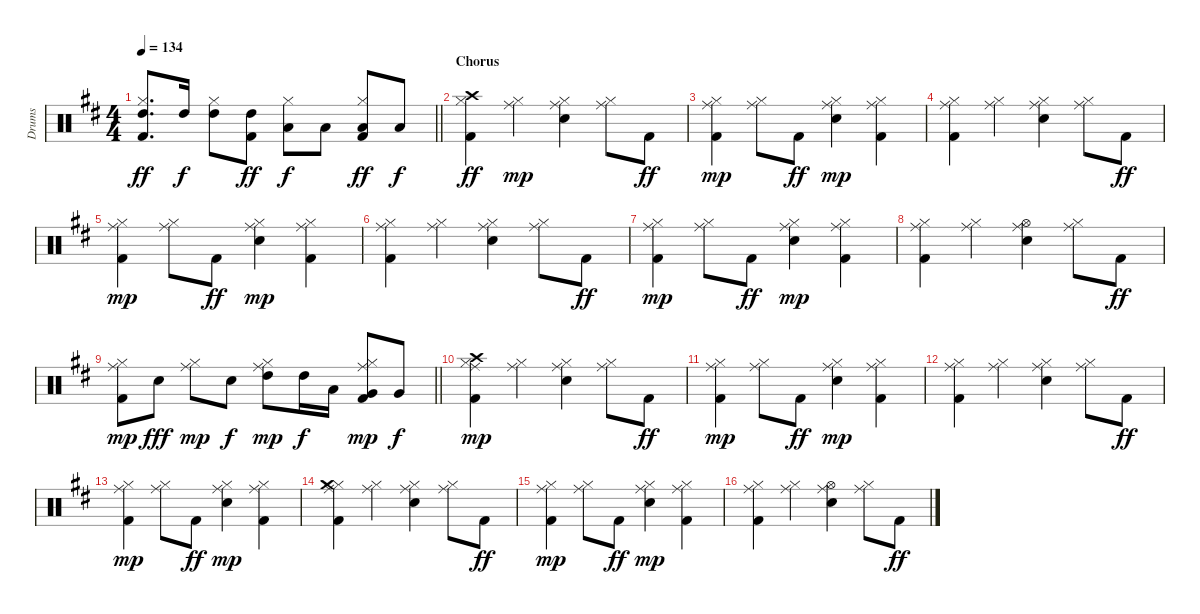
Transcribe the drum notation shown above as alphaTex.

\track ("Drums" "Drums") {instrument percussion}
\staff {score}
\articulation defaults
\ts (4 4)
\tempo 134
\clef neutral
\barLineRight lightlight
\ks d
("Kick (hit) 2" "Hi-Hat (closed)" "High Tom (hit)").8{d dy ff} "High Tom (hit)".16{dy f} ("Hi-Hat (closed)" "High Tom (hit)").8 ("Kick (hit) 2" "High Tom (hit)").8{dy ff} ("Hi-Hat (closed)" "Low Tom (hit)").8{dy f} "Low Tom (hit)".8 ("Kick (hit) 2" "Low Floor Tom (hit)" "Hi-Hat (closed)").8{dy ff} "Low Floor Tom (hit)".8{dy f} |
\section ("" "Chorus")
("Kick (hit) 2" "Hi-Hat (closed)" "Crash high (hit)").4{dy ff} ("Hi-Hat (closed)" "Ride (middle)").4{dy mp} ("Snare (hit) 2" "Hi-Hat (closed)" "Ride (middle)").4 ("Hi-Hat (closed)" "Ride (middle)").8 "Kick (hit) 2".8{dy ff} |
("Kick (hit) 2" "Hi-Hat (closed)" "Ride (middle)").4{dy mp} ("Hi-Hat (closed)" "Ride (middle)").8 "Kick (hit) 2".8{dy ff} ("Snare (hit) 2" "Hi-Hat (closed)" "Ride (middle)").4{dy mp} ("Kick (hit) 2" "Hi-Hat (closed)" "Ride (middle)").4 |
("Kick (hit) 2" "Hi-Hat (closed)" "Ride (middle)").4 ("Hi-Hat (closed)" "Ride (middle)").4 ("Snare (hit) 2" "Hi-Hat (closed)" "Ride (middle)").4 ("Hi-Hat (closed)" "Ride (middle)").8 "Kick (hit) 2".8{dy ff} |
("Kick (hit) 2" "Hi-Hat (closed)" "Ride (middle)").4{dy mp} ("Hi-Hat (closed)" "Ride (middle)").8 "Kick (hit) 2".8{dy ff} ("Snare (hit) 2" "Hi-Hat (closed)" "Ride (middle)").4{dy mp} ("Kick (hit) 2" "Hi-Hat (closed)" "Ride (middle)").4 |
("Kick (hit) 2" "Hi-Hat (closed)" "Ride (middle)").4 ("Hi-Hat (closed)" "Ride (middle)").4 ("Snare (hit) 2" "Hi-Hat (closed)" "Ride (middle)").4 ("Hi-Hat (closed)" "Ride (middle)").8 "Kick (hit) 2".8{dy ff} |
("Kick (hit) 2" "Hi-Hat (closed)" "Ride (middle)").4{dy mp} ("Hi-Hat (closed)" "Ride (middle)").8 "Kick (hit) 2".8{dy ff} ("Snare (hit) 2" "Hi-Hat (closed)" "Ride (middle)").4{dy mp} ("Kick (hit) 2" "Hi-Hat (closed)" "Ride (middle)").4 |
("Kick (hit) 2" "Hi-Hat (closed)" "Ride (middle)").4 ("Hi-Hat (closed)" "Ride (middle)").4 ("Snare (hit) 2" "Hi-Hat (open)" "Ride (middle)").4 ("Hi-Hat (closed)" "Ride (middle)").8 "Kick (hit) 2".8{dy ff} |
\barLineRight lightlight
("Kick (hit) 2" "Hi-Hat (closed)" "Ride (middle)").8{dy mp} "Snare (hit) 2".8{dy fff} ("Hi-Hat (closed)" "Ride (middle)").8{dy mp} "Snare (hit) 2".8{dy f} ("Hi-Hat (closed)" "High Tom (hit)" "Ride (middle)").8{dy mp} "High Tom (hit)".16{dy f} "Low Tom (hit)".16 ("Kick (hit) 2" "Hi-Hat (closed)" "Very Low Tom (hit)" "Ride (middle)").8{dy mp} "Very Low Tom (hit)".8{dy f} |
("Kick (hit) 2" "Hi-Hat (closed)" "Crash high (hit)" "Ride (middle)").4{dy mp} ("Hi-Hat (closed)" "Ride (middle)").4 ("Snare (hit) 2" "Hi-Hat (closed)" "Ride (middle)").4 ("Hi-Hat (closed)" "Ride (middle)").8 "Kick (hit) 2".8{dy ff} |
("Kick (hit) 2" "Hi-Hat (closed)" "Ride (middle)").4{dy mp} ("Hi-Hat (closed)" "Ride (middle)").8 "Kick (hit) 2".8{dy ff} ("Snare (hit) 2" "Hi-Hat (closed)" "Ride (middle)").4{dy mp} ("Kick (hit) 2" "Hi-Hat (closed)" "Ride (middle)").4 |
("Kick (hit) 2" "Hi-Hat (closed)" "Ride (middle)").4 ("Hi-Hat (closed)" "Ride (middle)").4 ("Snare (hit) 2" "Hi-Hat (closed)" "Ride (middle)").4 ("Hi-Hat (closed)" "Ride (middle)").8 "Kick (hit) 2".8{dy ff} |
("Kick (hit) 2" "Hi-Hat (closed)" "Ride (middle)").4{dy mp} ("Hi-Hat (closed)" "Ride (middle)").8 "Kick (hit) 2".8{dy ff} ("Snare (hit) 2" "Hi-Hat (closed)" "Ride (middle)").4{dy mp} ("Kick (hit) 2" "Hi-Hat (closed)" "Ride (middle)").4 |
("Kick (hit) 2" "Hi-Hat (closed)" "Crash medium (hit)" "Ride (middle)").4 ("Hi-Hat (closed)" "Ride (middle)").4 ("Snare (hit) 2" "Hi-Hat (closed)" "Ride (middle)").4 ("Hi-Hat (closed)" "Ride (middle)").8 "Kick (hit) 2".8{dy ff} |
("Kick (hit) 2" "Hi-Hat (closed)" "Ride (middle)").4{dy mp} ("Hi-Hat (closed)" "Ride (middle)").8 "Kick (hit) 2".8{dy ff} ("Snare (hit) 2" "Hi-Hat (closed)" "Ride (middle)").4{dy mp} ("Kick (hit) 2" "Hi-Hat (closed)" "Ride (middle)").4 |
("Kick (hit) 2" "Hi-Hat (closed)" "Ride (middle)").4 ("Hi-Hat (closed)" "Ride (middle)").4 ("Snare (hit) 2" "Hi-Hat (open)" "Ride (middle)").4 ("Hi-Hat (closed)" "Ride (middle)").8 "Kick (hit) 2".8{dy ff}
